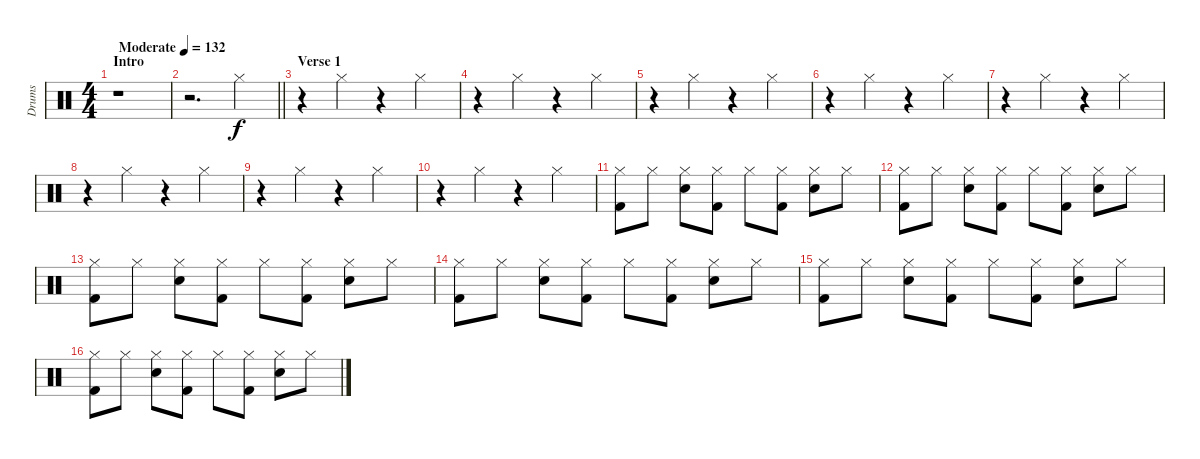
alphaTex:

\track ("Drums" "Drums") {instrument percussion}
\staff {score}
\articulation defaults
\ts (4 4)
\section ("" "Intro")
\tempo (132 "Moderate")
\clef neutral
\ks c
r.1{dy f} |
\barLineRight lightlight
r.2{d} "Hi-Hat (closed)".4 |
\section ("" "Verse 1")
r.4 "Hi-Hat (closed)".4 r.4 "Hi-Hat (closed)".4 |
r.4 "Hi-Hat (closed)".4 r.4 "Hi-Hat (closed)".4 |
r.4 "Hi-Hat (closed)".4 r.4 "Hi-Hat (closed)".4 |
r.4 "Hi-Hat (closed)".4 r.4 "Hi-Hat (closed)".4 |
r.4 "Hi-Hat (closed)".4 r.4 "Hi-Hat (closed)".4 |
r.4 "Hi-Hat (closed)".4 r.4 "Hi-Hat (closed)".4 |
r.4 "Hi-Hat (closed)".4 r.4 "Hi-Hat (closed)".4 |
r.4 "Hi-Hat (closed)".4 r.4 "Hi-Hat (closed)".4 |
("Hi-Hat (closed)" "Kick (hit) 2").8 "Hi-Hat (closed)".8 ("Hi-Hat (closed)" "Electric Snare (hit)").8 ("Hi-Hat (closed)" "Kick (hit) 2").8 "Hi-Hat (closed)".8 ("Hi-Hat (closed)" "Kick (hit) 2").8 ("Hi-Hat (closed)" "Electric Snare (hit)").8 "Hi-Hat (closed)".8 |
("Hi-Hat (closed)" "Kick (hit) 2").8 "Hi-Hat (closed)".8 ("Hi-Hat (closed)" "Electric Snare (hit)").8 ("Hi-Hat (closed)" "Kick (hit) 2").8 "Hi-Hat (closed)".8 ("Hi-Hat (closed)" "Kick (hit) 2").8 ("Hi-Hat (closed)" "Electric Snare (hit)").8 "Hi-Hat (closed)".8 |
("Hi-Hat (closed)" "Kick (hit) 2").8 "Hi-Hat (closed)".8 ("Hi-Hat (closed)" "Electric Snare (hit)").8 ("Hi-Hat (closed)" "Kick (hit) 2").8 "Hi-Hat (closed)".8 ("Hi-Hat (closed)" "Kick (hit) 2").8 ("Hi-Hat (closed)" "Electric Snare (hit)").8 "Hi-Hat (closed)".8 |
("Hi-Hat (closed)" "Kick (hit) 2").8 "Hi-Hat (closed)".8 ("Hi-Hat (closed)" "Electric Snare (hit)").8 ("Hi-Hat (closed)" "Kick (hit) 2").8 "Hi-Hat (closed)".8 ("Hi-Hat (closed)" "Kick (hit) 2").8 ("Hi-Hat (closed)" "Electric Snare (hit)").8 "Hi-Hat (closed)".8 |
("Hi-Hat (closed)" "Kick (hit) 2").8 "Hi-Hat (closed)".8 ("Hi-Hat (closed)" "Electric Snare (hit)").8 ("Hi-Hat (closed)" "Kick (hit) 2").8 "Hi-Hat (closed)".8 ("Hi-Hat (closed)" "Kick (hit) 2").8 ("Hi-Hat (closed)" "Electric Snare (hit)").8 "Hi-Hat (closed)".8 |
("Hi-Hat (closed)" "Kick (hit) 2").8 "Hi-Hat (closed)".8 ("Hi-Hat (closed)" "Electric Snare (hit)").8 ("Hi-Hat (closed)" "Kick (hit) 2").8 "Hi-Hat (closed)".8 ("Hi-Hat (closed)" "Kick (hit) 2").8 ("Hi-Hat (closed)" "Electric Snare (hit)").8 "Hi-Hat (closed)".8
